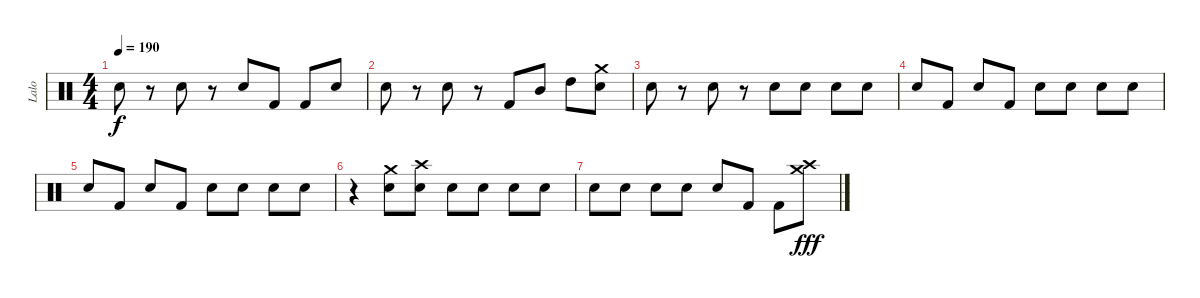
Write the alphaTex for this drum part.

\track ("Lalo" "Lalo") {instrument percussion}
\staff {score}
\articulation defaults
\ts (4 4)
\tempo 190
\clef neutral
\ks c "Electric Snare (hit)".8{dy f}
r.8 "Electric Snare (hit)".8 r.8 "Electric Snare (hit)".8 "Kick (hit) 2".8 "Kick (hit) 2".8 "Electric Snare (hit)".8 |
"Electric Snare (hit)".8 r.8 "Electric Snare (hit)".8 r.8 "Kick (hit) 2".8 "Mid Tom (hit)".8 "High Tom (hit)".8 ("Crash medium (hit)" "Electric Snare (hit)").8 |
"Electric Snare (hit)".8 r.8 "Electric Snare (hit)".8 r.8 "Electric Snare (hit)".8 "Electric Snare (hit)".8 "Electric Snare (hit)".8 "Electric Snare (hit)".8 |
"Electric Snare (hit)".8 "Kick (hit) 2".8 "Electric Snare (hit)".8 "Kick (hit) 2".8 "Electric Snare (hit)".8 "Electric Snare (hit)".8 "Electric Snare (hit)".8 "Electric Snare (hit)".8 |
"Electric Snare (hit)".8 "Kick (hit) 2".8 "Electric Snare (hit)".8 "Kick (hit) 2".8 "Electric Snare (hit)".8 "Electric Snare (hit)".8 "Electric Snare (hit)".8 "Electric Snare (hit)".8 |
r.4 ("Crash medium (hit)" "Electric Snare (hit)").8 ("Crash high (hit)" "Electric Snare (hit)").8 "Snare (hit) 2".8 "Snare (hit) 2".8 "Snare (hit) 2".8 "Snare (hit) 2".8 |
"Electric Snare (hit)".8 "Electric Snare (hit)".8 "Electric Snare (hit)".8 "Electric Snare (hit)".8 "Electric Snare (hit)".8 "Kick (hit) 2".8 "Kick (hit) 2".8 ("Crash medium (hit)" "Crash high (hit)").8{dy fff}
